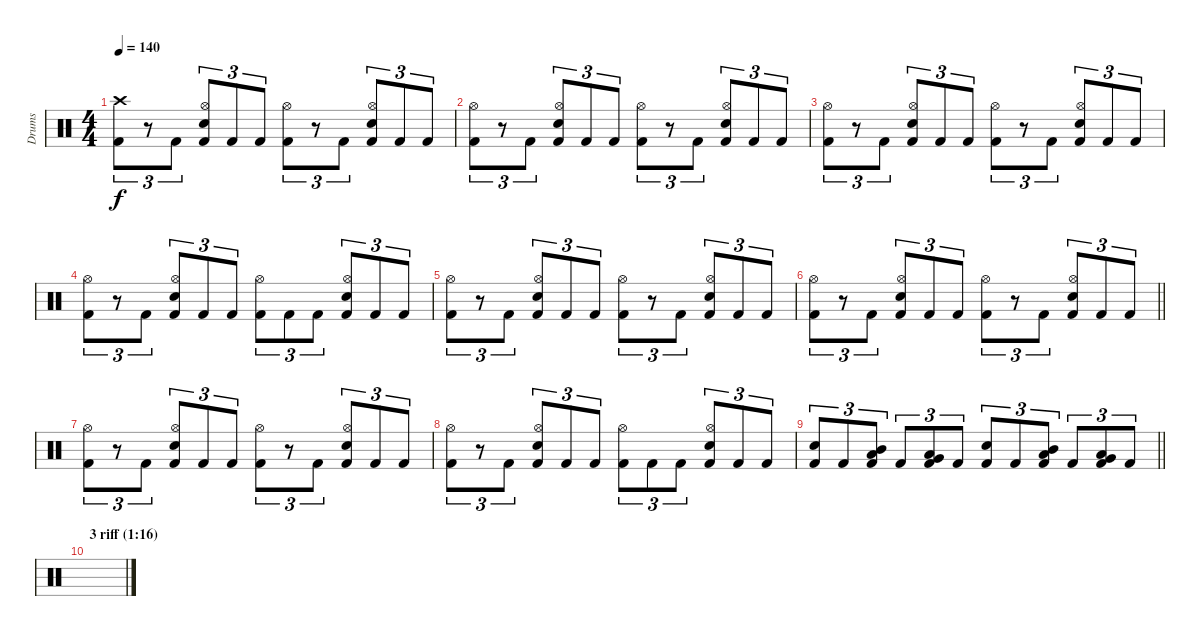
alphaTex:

\track ("Drums" "Drums") {instrument percussion}
\staff {score}
\articulation defaults
\ts (4 4)
\section ("" "")
\tempo 140
\clef neutral
\ks c
("Crash high (hit)" "Kick (hit) 2").8{tu (3 2) dy f} r.8{tu (3 2)} "Kick (hit) 2".8{tu (3 2)} ("Hi-Hat (open)" "Snare (hit) 2" "Kick (hit) 2").8{tu (3 2)} "Kick (hit) 2".8{tu (3 2)} "Kick (hit) 2".8{tu (3 2)} ("Hi-Hat (open)" "Kick (hit) 2").8{tu (3 2)} r.8{tu (3 2)} "Kick (hit) 2".8{tu (3 2)} ("Hi-Hat (open)" "Snare (hit) 2" "Kick (hit) 2").8{tu (3 2)} "Kick (hit) 2".8{tu (3 2)} "Kick (hit) 2".8{tu (3 2)} |
("Hi-Hat (open)" "Kick (hit) 2").8{tu (3 2)} r.8{tu (3 2)} "Kick (hit) 2".8{tu (3 2)} ("Hi-Hat (open)" "Snare (hit) 2" "Kick (hit) 2").8{tu (3 2)} "Kick (hit) 2".8{tu (3 2)} "Kick (hit) 2".8{tu (3 2)} ("Hi-Hat (open)" "Kick (hit) 2").8{tu (3 2)} r.8{tu (3 2)} "Kick (hit) 2".8{tu (3 2)} ("Hi-Hat (open)" "Snare (hit) 2" "Kick (hit) 2").8{tu (3 2)} "Kick (hit) 2".8{tu (3 2)} "Kick (hit) 2".8{tu (3 2)} |
("Hi-Hat (open)" "Kick (hit) 2").8{tu (3 2)} r.8{tu (3 2)} "Kick (hit) 2".8{tu (3 2)} ("Hi-Hat (open)" "Snare (hit) 2" "Kick (hit) 2").8{tu (3 2)} "Kick (hit) 2".8{tu (3 2)} "Kick (hit) 2".8{tu (3 2)} ("Hi-Hat (open)" "Kick (hit) 2").8{tu (3 2)} r.8{tu (3 2)} "Kick (hit) 2".8{tu (3 2)} ("Hi-Hat (open)" "Snare (hit) 2" "Kick (hit) 2").8{tu (3 2)} "Kick (hit) 2".8{tu (3 2)} "Kick (hit) 2".8{tu (3 2)} |
("Hi-Hat (open)" "Kick (hit) 2").8{tu (3 2)} r.8{tu (3 2)} "Kick (hit) 2".8{tu (3 2)} ("Hi-Hat (open)" "Snare (hit) 2" "Kick (hit) 2").8{tu (3 2)} "Kick (hit) 2".8{tu (3 2)} "Kick (hit) 2".8{tu (3 2)} ("Hi-Hat (open)" "Kick (hit) 2").8{tu (3 2)} "Kick (hit) 2".8{tu (3 2)} "Kick (hit) 2".8{tu (3 2)} ("Hi-Hat (open)" "Snare (hit) 2" "Kick (hit) 2").8{tu (3 2)} "Kick (hit) 2".8{tu (3 2)} "Kick (hit) 2".8{tu (3 2)} |
("Hi-Hat (open)" "Kick (hit) 2").8{tu (3 2)} r.8{tu (3 2)} "Kick (hit) 2".8{tu (3 2)} ("Hi-Hat (open)" "Snare (hit) 2" "Kick (hit) 2").8{tu (3 2)} "Kick (hit) 2".8{tu (3 2)} "Kick (hit) 2".8{tu (3 2)} ("Hi-Hat (open)" "Kick (hit) 2").8{tu (3 2)} r.8{tu (3 2)} "Kick (hit) 2".8{tu (3 2)} ("Hi-Hat (open)" "Snare (hit) 2" "Kick (hit) 2").8{tu (3 2)} "Kick (hit) 2".8{tu (3 2)} "Kick (hit) 2".8{tu (3 2)} |
\barLineRight lightlight
("Hi-Hat (open)" "Kick (hit) 2").8{tu (3 2)} r.8{tu (3 2)} "Kick (hit) 2".8{tu (3 2)} ("Hi-Hat (open)" "Snare (hit) 2" "Kick (hit) 2").8{tu (3 2)} "Kick (hit) 2".8{tu (3 2)} "Kick (hit) 2".8{tu (3 2)} ("Hi-Hat (open)" "Kick (hit) 2").8{tu (3 2)} r.8{tu (3 2)} "Kick (hit) 2".8{tu (3 2)} ("Hi-Hat (open)" "Snare (hit) 2" "Kick (hit) 2").8{tu (3 2)} "Kick (hit) 2".8{tu (3 2)} "Kick (hit) 2".8{tu (3 2)} |
("Hi-Hat (open)" "Kick (hit) 2").8{tu (3 2)} r.8{tu (3 2)} "Kick (hit) 2".8{tu (3 2)} ("Hi-Hat (open)" "Snare (hit) 2" "Kick (hit) 2").8{tu (3 2)} "Kick (hit) 2".8{tu (3 2)} "Kick (hit) 2".8{tu (3 2)} ("Hi-Hat (open)" "Kick (hit) 2").8{tu (3 2)} r.8{tu (3 2)} "Kick (hit) 2".8{tu (3 2)} ("Hi-Hat (open)" "Snare (hit) 2" "Kick (hit) 2").8{tu (3 2)} "Kick (hit) 2".8{tu (3 2)} "Kick (hit) 2".8{tu (3 2)} |
("Hi-Hat (open)" "Kick (hit) 2").8{tu (3 2)} r.8{tu (3 2)} "Kick (hit) 2".8{tu (3 2)} ("Hi-Hat (open)" "Snare (hit) 2" "Kick (hit) 2").8{tu (3 2)} "Kick (hit) 2".8{tu (3 2)} "Kick (hit) 2".8{tu (3 2)} ("Hi-Hat (open)" "Kick (hit) 2").8{tu (3 2)} "Kick (hit) 2".8{tu (3 2)} "Kick (hit) 2".8{tu (3 2)} ("Hi-Hat (open)" "Snare (hit) 2" "Kick (hit) 2").8{tu (3 2)} "Kick (hit) 2".8{tu (3 2)} "Kick (hit) 2".8{tu (3 2)} |
\barLineRight lightlight
("Snare (hit) 2" "Kick (hit) 2").8{tu (3 2)} "Kick (hit) 2".8{tu (3 2)} ("Mid Tom (hit)" "Low Tom (hit)" "Kick (hit) 2").8{tu (3 2)} "Kick (hit) 2".8{tu (3 2)} ("Low Tom (hit)" "Very Low Tom (hit)" "Kick (hit) 2").8{tu (3 2)} "Kick (hit) 2".8{tu (3 2)} ("Snare (hit) 2" "Kick (hit) 2").8{tu (3 2)} "Kick (hit) 2".8{tu (3 2)} ("Mid Tom (hit)" "Low Tom (hit)" "Kick (hit) 2").8{tu (3 2)} "Kick (hit) 2".8{tu (3 2)} ("Low Tom (hit)" "Very Low Tom (hit)" "Kick (hit) 2").8{tu (3 2)} "Kick (hit) 2".8{tu (3 2)} |
\section ("" "3 riff (1:16)")
